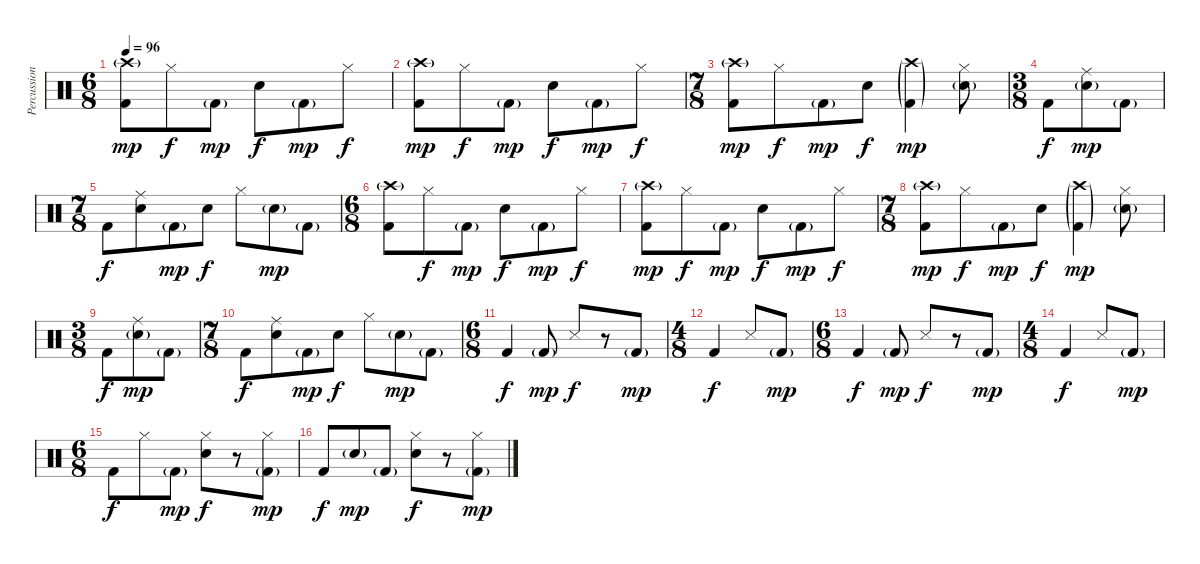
\track ("Percussion" "Percussion") {instrument percussion}
\staff {score}
\articulation defaults
\ts (6 8)
\tempo 96
\clef neutral
\ks c
("Crash high (hit)"{g} "Kick (hit) 2").8{dy mp} "Hi-Hat (closed)".8{dy f} "Kick (hit) 2"{g}.8{dy mp} "Snare (hit) 2".8{dy f} "Kick (hit) 2"{g}.8{dy mp} "Hi-Hat (closed)".8{dy f} |
("Crash high (hit)"{g} "Kick (hit) 2").8{dy mp} "Hi-Hat (closed)".8{dy f} "Kick (hit) 2"{g}.8{dy mp} "Snare (hit) 2".8{dy f} "Kick (hit) 2"{g}.8{dy mp} "Hi-Hat (closed)".8{dy f} |
\ts (7 8)
("Crash high (hit)"{g} "Kick (hit) 2").8{dy mp} "Hi-Hat (closed)".8{dy f} "Kick (hit) 2"{g}.8{dy mp} "Snare (hit) 2".8{dy f} ("Crash high (hit)"{g} "Kick (hit) 2"{g}).4{dy mp} ("Snare (hit) 2"{g} "Hi-Hat (closed)").8 |
\ts (3 8)
"Kick (hit) 2".8{dy f} ("Ride (middle)" "Snare (hit) 2"{g}).8{dy mp} "Kick (hit) 2"{g}.8 |
\ts (7 8)
"Kick (hit) 2".8{dy f} ("Ride (middle)" "Snare (hit) 2").8 "Kick (hit) 2"{g}.8{dy mp} "Snare (hit) 2".8{dy f} "Hi-Hat (closed)".8 "Snare (hit) 2"{g}.8{dy mp} "Kick (hit) 2"{g}.8 |
\ts (6 8)
("Crash high (hit)"{g} "Kick (hit) 2").8 "Hi-Hat (closed)".8{dy f} "Kick (hit) 2"{g}.8{dy mp} "Snare (hit) 2".8{dy f} "Kick (hit) 2"{g}.8{dy mp} "Hi-Hat (closed)".8{dy f} |
("Crash high (hit)"{g} "Kick (hit) 2").8{dy mp} "Hi-Hat (closed)".8{dy f} "Kick (hit) 2"{g}.8{dy mp} "Snare (hit) 2".8{dy f} "Kick (hit) 2"{g}.8{dy mp} "Hi-Hat (closed)".8{dy f} |
\ts (7 8)
("Crash high (hit)"{g} "Kick (hit) 2").8{dy mp} "Hi-Hat (closed)".8{dy f} "Kick (hit) 2"{g}.8{dy mp} "Snare (hit) 2".8{dy f} ("Crash high (hit)"{g} "Kick (hit) 2"{g}).4{dy mp} ("Snare (hit) 2"{g} "Hi-Hat (closed)").8 |
\ts (3 8)
"Kick (hit) 2".8{dy f} ("Ride (middle)" "Snare (hit) 2"{g}).8{dy mp} "Kick (hit) 2"{g}.8 |
\ts (7 8)
"Kick (hit) 2".8{dy f} ("Ride (middle)" "Snare (hit) 2").8 "Kick (hit) 2"{g}.8{dy mp} "Snare (hit) 2".8{dy f} "Hi-Hat (closed)".8 "Snare (hit) 2"{g}.8{dy mp} "Kick (hit) 2"{g}.8 |
\ts (6 8)
"Kick (hit) 2".4{dy f} "Kick (hit) 2"{g}.8{dy mp} "Snare (side stick) 3".8{dy f} r.8 "Kick (hit) 2"{g}.8{dy mp} |
\ts (4 8)
"Kick (hit) 2".4{dy f} "Snare (side stick) 3".8 "Kick (hit) 2"{g}.8{dy mp} |
\ts (6 8)
"Kick (hit) 2".4{dy f} "Kick (hit) 2"{g}.8{dy mp} "Snare (side stick) 3".8{dy f} r.8 "Kick (hit) 2"{g}.8{dy mp} |
\ts (4 8)
"Kick (hit) 2".4{dy f} "Snare (side stick) 3".8 "Kick (hit) 2"{g}.8{dy mp} |
\ts (6 8)
"Kick (hit) 2".8{dy f} "Hi-Hat (closed)".8 "Kick (hit) 2"{g}.8{dy mp} ("Snare (hit) 2" "Hi-Hat (closed)").8{dy f} r.8 ("Hi-Hat (closed)" "Kick (hit) 2"{g}).8{dy mp} |
"Kick (hit) 2".8{dy f} "Snare (hit) 2"{g}.8{dy mp} "Kick (hit) 2"{g}.8 ("Snare (hit) 2" "Hi-Hat (closed)").8{dy f} r.8 ("Hi-Hat (closed)" "Kick (hit) 2"{g}).8{dy mp}
